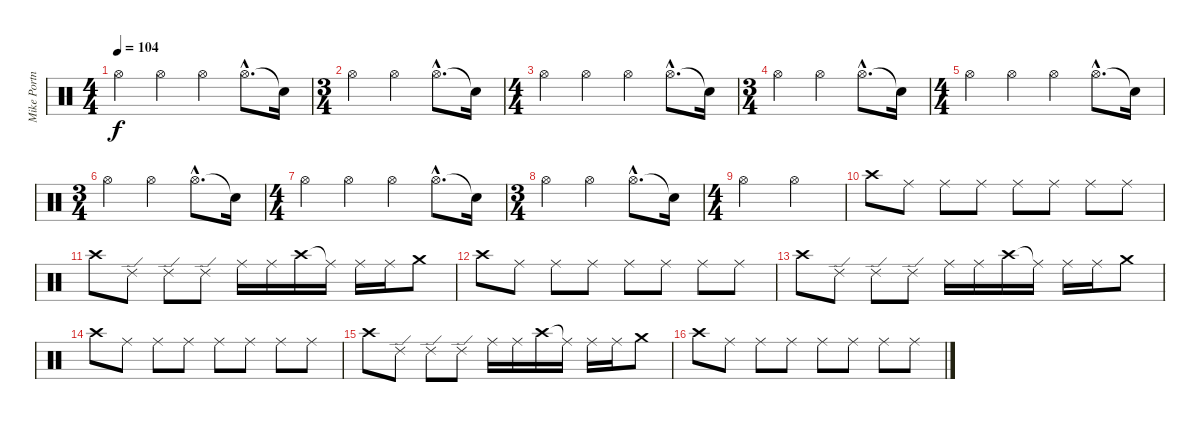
\track ("Mike Portnoy" "Mike Portn") {instrument percussion}
\staff {score}
\articulation defaults
\ts (4 4)
\tempo 104
\clef neutral
\ks c "Hi-Hat (open)".4{dy f} "Hi-Hat (open)".4 "Hi-Hat (open)".4 "Hi-Hat (open)"{hac}.8{d} "Snare (hit)"{t}.16
|
\ts (3 4)
"Hi-Hat (open)".4 "Hi-Hat (open)".4 "Hi-Hat (open)"{hac}.8{d} "Snare (hit)"{t}.16 |
\ts (4 4)
"Hi-Hat (open)".4 "Hi-Hat (open)".4 "Hi-Hat (open)".4 "Hi-Hat (open)"{hac}.8{d} "Snare (hit)"{t}.16 |
\ts (3 4)
"Hi-Hat (open)".4 "Hi-Hat (open)".4 "Hi-Hat (open)"{hac}.8{d} "Snare (hit)"{t}.16 |
\ts (4 4)
"Hi-Hat (open)".4 "Hi-Hat (open)".4 "Hi-Hat (open)".4 "Hi-Hat (open)"{hac}.8{d} "Snare (hit)"{t}.16 |
\ts (3 4)
"Hi-Hat (open)".4 "Hi-Hat (open)".4 "Hi-Hat (open)"{hac}.8{d} "Snare (hit)"{t}.16 |
\ts (4 4)
"Hi-Hat (open)".4 "Hi-Hat (open)".4 "Hi-Hat (open)".4 "Hi-Hat (open)"{hac}.8{d} "Snare (hit)"{t}.16 |
\ts (3 4)
"Hi-Hat (open)".4 "Hi-Hat (open)".4 "Hi-Hat (open)"{hac}.8{d} "Snare (hit)"{t}.16 |
\ts (4 4)
"Hi-Hat (open)".2 "Hi-Hat (open)".2 |
"Crash high (hit)".8 "Ride (middle)".8 "Ride (middle)".8 "Ride (middle)".8 "Ride (middle)".8 "Ride (middle)".8 "Ride (middle)".8 "Ride (middle)".8 |
"Crash high (hit)".8 "Ride (edge) 2".8 "Ride (edge) 2".8 "Ride (edge) 2".8 "Ride (middle)".16 "Ride (middle)".16 "Crash high (hit)".16 "Ride (middle)"{t}.16 "Ride (middle)".16 "Ride (middle)".16 "Crash medium (hit)".8 |
"Crash high (hit)".8 "Ride (middle)".8 "Ride (middle)".8 "Ride (middle)".8 "Ride (middle)".8 "Ride (middle)".8 "Ride (middle)".8 "Ride (middle)".8 |
"Crash high (hit)".8 "Ride (edge) 2".8 "Ride (edge) 2".8 "Ride (edge) 2".8 "Ride (middle)".16 "Ride (middle)".16 "Crash high (hit)".16 "Ride (middle)"{t}.16 "Ride (middle)".16 "Ride (middle)".16 "Crash medium (hit)".8 |
"Crash high (hit)".8 "Ride (middle)".8 "Ride (middle)".8 "Ride (middle)".8 "Ride (middle)".8 "Ride (middle)".8 "Ride (middle)".8 "Ride (middle)".8 |
"Crash high (hit)".8 "Ride (edge) 2".8 "Ride (edge) 2".8 "Ride (edge) 2".8 "Ride (middle)".16 "Ride (middle)".16 "Crash high (hit)".16 "Ride (middle)"{t}.16 "Ride (middle)".16 "Ride (middle)".16 "Crash medium (hit)".8 |
"Crash high (hit)".8 "Ride (middle)".8 "Ride (middle)".8 "Ride (middle)".8 "Ride (middle)".8 "Ride (middle)".8 "Ride (middle)".8 "Ride (middle)".8
